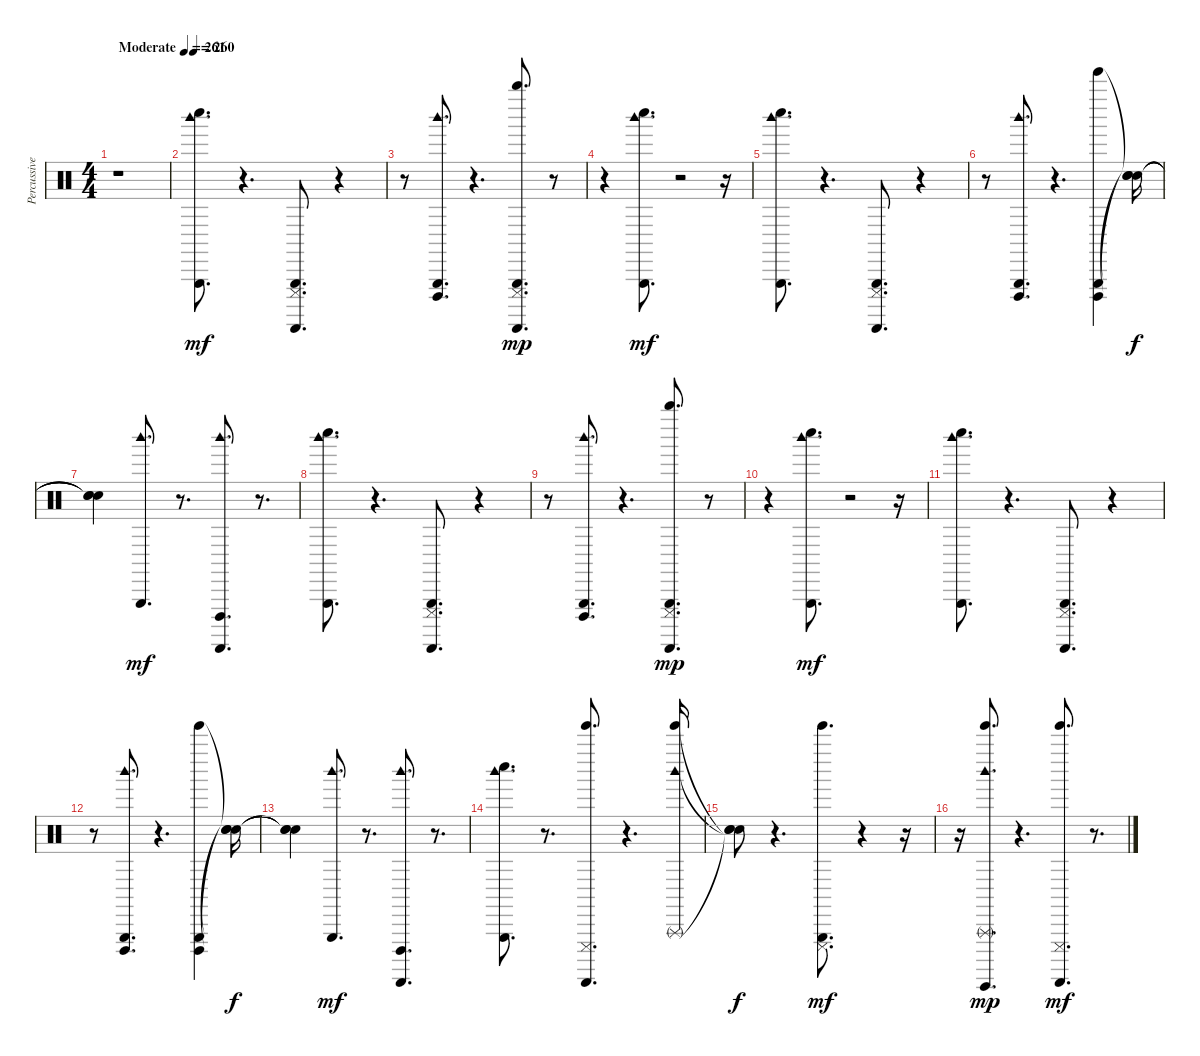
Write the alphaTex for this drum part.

\track ("Percussive Organ" "Percussive") {instrument percussion}
\staff {score}
\articulation defaults
\ts (4 4)
\tempo (261 "Moderate")
\clef neutral
\ks c
r.1{dy mf} |
\tempo 260
("Whistle low (hit)" "Triangle (hit)" "Woodblock high (hit)").8{d} r.4{d} ("Guiro (scrap-return)" "Triangle (hit)" "Cuica (mute)").8{d} r.4 |
r.8 ("Woodblock high (hit)" "Triangle (hit)" "Cuica (open)").8{d} r.4{d} ("Whistle high (hit)" "Triangle (hit)" "Cuica (mute)" "Guiro (scrap-return)").8{d dy mp} r.8 |
r.4 ("Whistle low (hit)" "Triangle (hit)" "Woodblock high (hit)").8{d dy mf} r.2 r.16 |
("Whistle low (hit)" "Triangle (hit)" "Woodblock high (hit)").8{d} r.4{d} ("Guiro (scrap-return)" "Triangle (hit)" "Cuica (mute)").8{d} r.4 |
r.8 ("Woodblock high (hit)" "Triangle (hit)" "Cuica (open)").8{d} r.4{d} ("Cuica (open)" "Tinkle Bell (hit)" "Triangle (hit)").4 ("Snare (hit)"{t} "Snare (hit)"{t} "Snare (hit)"{t}).16{dy f} |
("Snare (hit)"{t} "Snare (hit)"{t} "Snare (hit)"{t}).4 ("Woodblock high (hit)" "Triangle (hit)").8{d dy mf} r.8{d} ("Guiro (scrap-return)" "Cuica (open)" "Woodblock high (hit)").8{d} r.8{d} |
("Whistle low (hit)" "Triangle (hit)" "Woodblock high (hit)").8{d} r.4{d} ("Guiro (scrap-return)" "Triangle (hit)" "Cuica (mute)").8{d} r.4 |
r.8 ("Woodblock high (hit)" "Triangle (hit)" "Cuica (open)").8{d} r.4{d} ("Whistle high (hit)" "Triangle (hit)" "Cuica (mute)" "Guiro (scrap-return)").8{d dy mp} r.8 |
r.4 ("Whistle low (hit)" "Triangle (hit)" "Woodblock high (hit)").8{d dy mf} r.2 r.16 |
("Whistle low (hit)" "Triangle (hit)" "Woodblock high (hit)").8{d} r.4{d} ("Guiro (scrap-return)" "Triangle (hit)" "Cuica (mute)").8{d} r.4 |
r.8 ("Woodblock high (hit)" "Triangle (hit)" "Cuica (open)").8{d} r.4{d} ("Cuica (open)" "Tinkle Bell (hit)" "Triangle (hit)").4 ("Snare (hit)"{t} "Snare (hit)"{t} "Snare (hit)"{t}).16{dy f} |
("Snare (hit)"{t} "Snare (hit)"{t} "Snare (hit)"{t}).4 ("Woodblock high (hit)" "Triangle (hit)").8{d dy mf} r.8{d} ("Guiro (scrap-return)" "Cuica (open)" "Woodblock high (hit)").8{d} r.8{d} |
("Whistle low (hit)" "Triangle (hit)" "Woodblock high (hit)").8{d} r.8{d} ("Guiro (scrap-return)" "Tinkle Bell (hit)" "Cuica (mute)").8{d} r.4{d} ("Woodblock high (hit)" "Tinkle Bell (hit)" "Triangle (rnute)").16 |
("Snare (hit)"{t} "Snare (hit)"{t} "Snare (hit)"{t}).8{dy f} r.4{d} ("Cuica (mute)" "Tinkle Bell (hit)" "Triangle (hit)").8{d dy mf} r.4 r.16 |
r.16 ("Guiro (hit)" "Tinkle Bell (hit)" "Triangle (rnute)" "Woodblock high (hit)").8{d dy mp} r.4{d} ("Guiro (scrap-return)" "Tinkle Bell (hit)" "Cuica (mute)").8{d dy mf} r.8{d}
